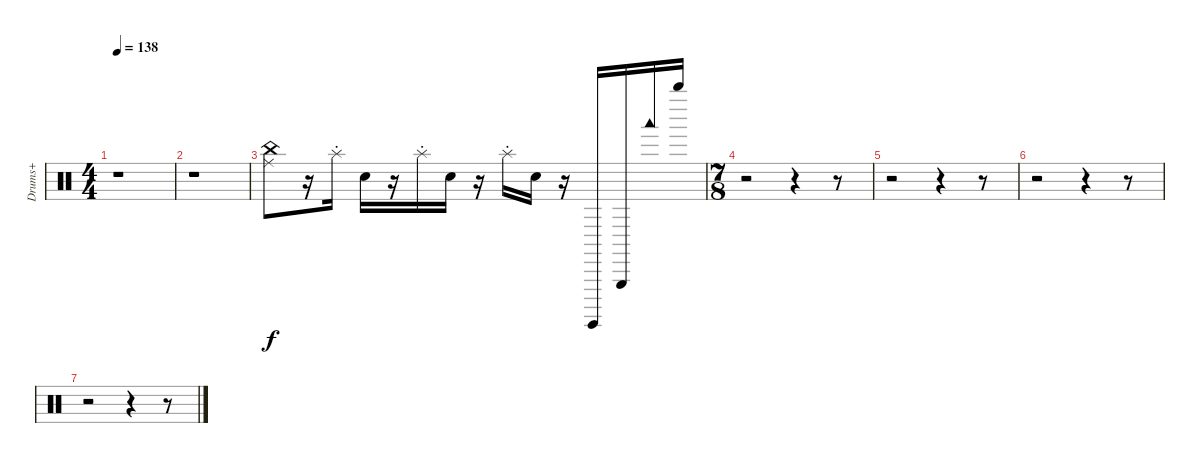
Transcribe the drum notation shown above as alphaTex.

\track ("Drums+" "Drums+") {instrument percussion}
\staff {score}
\articulation defaults
\ts (4 4)
\tempo 138
\clef neutral
\ks c
r.1{dy f} |
r.1 |
("China (choke)" "Cowbell medium (tip)").8 r.16 "Splash (choke)".16 "Snare (hit)".16 r.16 "Splash (choke)".16 "Snare (hit)".16 r.16 "Splash (choke)".16 "Snare (hit)".16 r.16 "Surdo (hit)".16 "Triangle (hit)".16 "Woodblock low (hit)".16 "Whistle high (hit)".16 |
\ts (7 8)
r.2 r.4 r.8 |
r.2 r.4 r.8 |
r.2 r.4 r.8 |
r.2 r.4 r.8
